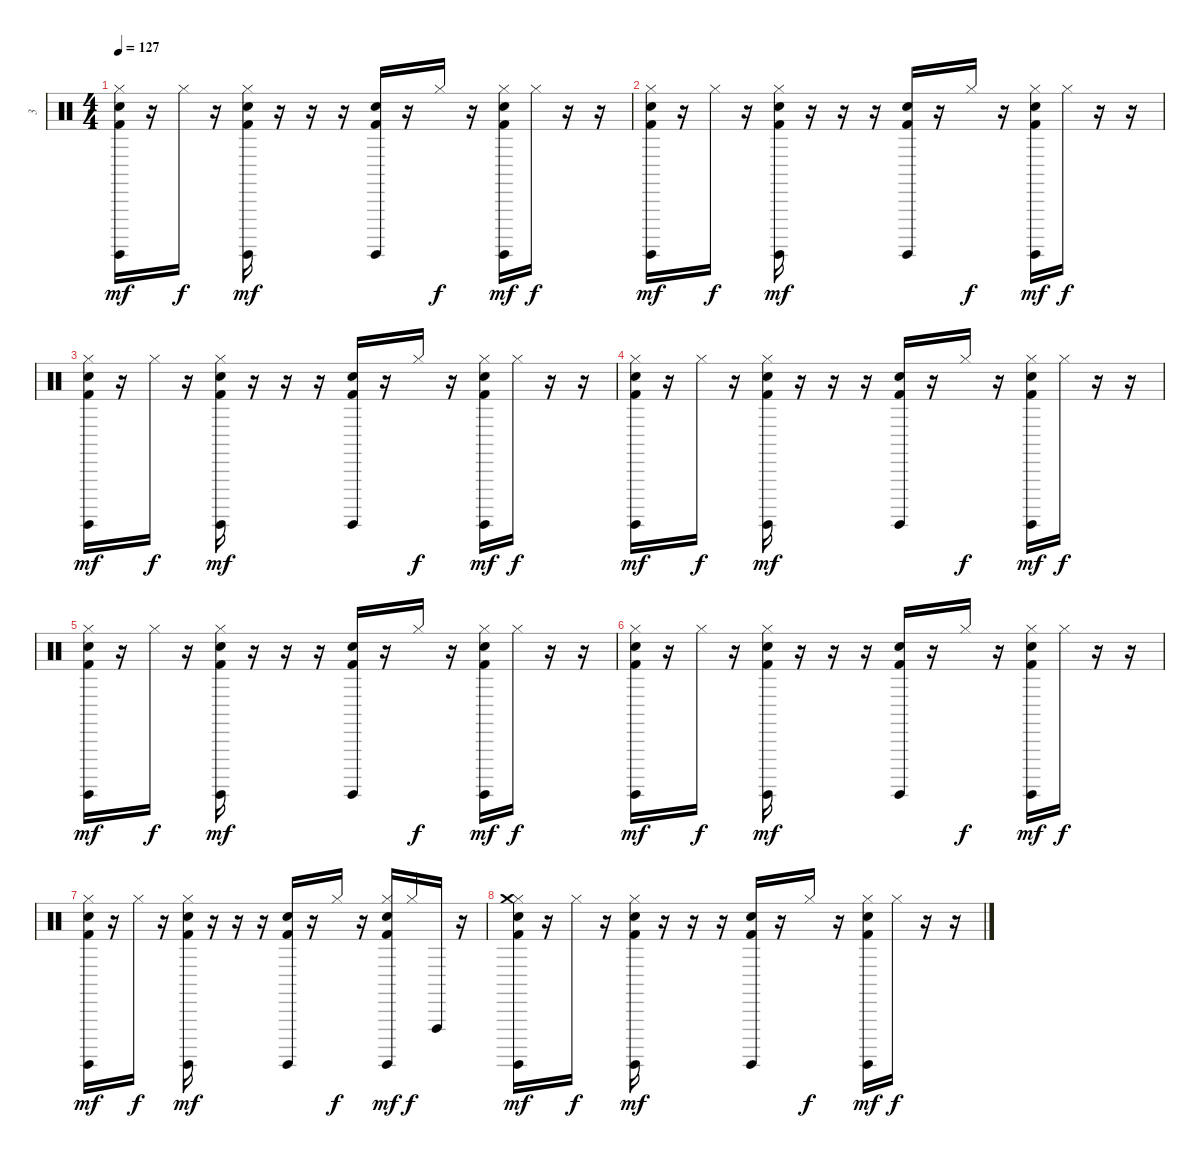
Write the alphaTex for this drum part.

\track ("3" "3") {instrument percussion}
\staff {score}
\articulation defaults
\ts (4 4)
\tempo 127
\clef neutral
\ks c
("Hi-Hat (closed)" "Surdo (hit)" "Kick (hit) 2" "Hand Clap (hit)").16{dy mf} r.16 "Hi-Hat (closed)".16{dy f} r.16 ("Hi-Hat (closed)" "Surdo (hit)" "Kick (hit) 2" "Hand Clap (hit)").16{dy mf} r.16 r.16 r.16 ("Surdo (hit)" "Kick (hit) 2" "Hand Clap (hit)").16 r.16 "Hi-Hat (closed)".16{dy f} r.16 ("Hi-Hat (closed)" "Surdo (hit)" "Kick (hit) 2" "Hand Clap (hit)").16{dy mf} "Hi-Hat (closed)".16{dy f} r.16 r.16 |
("Hi-Hat (closed)" "Surdo (hit)" "Kick (hit) 2" "Hand Clap (hit)").16{dy mf} r.16 "Hi-Hat (closed)".16{dy f} r.16 ("Hi-Hat (closed)" "Surdo (hit)" "Kick (hit) 2" "Hand Clap (hit)").16{dy mf} r.16 r.16 r.16 ("Surdo (hit)" "Kick (hit) 2" "Hand Clap (hit)").16 r.16 "Hi-Hat (closed)".16{dy f} r.16 ("Hi-Hat (closed)" "Surdo (hit)" "Kick (hit) 2" "Hand Clap (hit)").16{dy mf} "Hi-Hat (closed)".16{dy f} r.16 r.16 |
("Hi-Hat (closed)" "Surdo (hit)" "Kick (hit) 2" "Hand Clap (hit)").16{dy mf} r.16 "Hi-Hat (closed)".16{dy f} r.16 ("Hi-Hat (closed)" "Surdo (hit)" "Kick (hit) 2" "Hand Clap (hit)").16{dy mf} r.16 r.16 r.16 ("Surdo (hit)" "Kick (hit) 2" "Hand Clap (hit)").16 r.16 "Hi-Hat (closed)".16{dy f} r.16 ("Hi-Hat (closed)" "Surdo (hit)" "Kick (hit) 2" "Hand Clap (hit)").16{dy mf} "Hi-Hat (closed)".16{dy f} r.16 r.16 |
("Hi-Hat (closed)" "Surdo (hit)" "Kick (hit) 2" "Hand Clap (hit)").16{dy mf} r.16 "Hi-Hat (closed)".16{dy f} r.16 ("Hi-Hat (closed)" "Surdo (hit)" "Kick (hit) 2" "Hand Clap (hit)").16{dy mf} r.16 r.16 r.16 ("Surdo (hit)" "Kick (hit) 2" "Hand Clap (hit)").16 r.16 "Hi-Hat (closed)".16{dy f} r.16 ("Hi-Hat (closed)" "Surdo (hit)" "Kick (hit) 2" "Hand Clap (hit)").16{dy mf} "Hi-Hat (closed)".16{dy f} r.16 r.16 |
("Hi-Hat (closed)" "Surdo (hit)" "Kick (hit) 2" "Hand Clap (hit)").16{dy mf} r.16 "Hi-Hat (closed)".16{dy f} r.16 ("Hi-Hat (closed)" "Surdo (hit)" "Kick (hit) 2" "Hand Clap (hit)").16{dy mf} r.16 r.16 r.16 ("Surdo (hit)" "Kick (hit) 2" "Hand Clap (hit)").16 r.16 "Hi-Hat (closed)".16{dy f} r.16 ("Hi-Hat (closed)" "Surdo (hit)" "Kick (hit) 2" "Hand Clap (hit)").16{dy mf} "Hi-Hat (closed)".16{dy f} r.16 r.16 |
("Hi-Hat (closed)" "Surdo (hit)" "Kick (hit) 2" "Hand Clap (hit)").16{dy mf} r.16 "Hi-Hat (closed)".16{dy f} r.16 ("Hi-Hat (closed)" "Surdo (hit)" "Kick (hit) 2" "Hand Clap (hit)").16{dy mf} r.16 r.16 r.16 ("Surdo (hit)" "Kick (hit) 2" "Hand Clap (hit)").16 r.16 "Hi-Hat (closed)".16{dy f} r.16 ("Hi-Hat (closed)" "Surdo (hit)" "Kick (hit) 2" "Hand Clap (hit)").16{dy mf} "Hi-Hat (closed)".16{dy f} r.16 r.16 |
("Hi-Hat (closed)" "Surdo (hit)" "Kick (hit) 2" "Hand Clap (hit)").16{dy mf} r.16 "Hi-Hat (closed)".16{dy f} r.16 ("Hi-Hat (closed)" "Surdo (hit)" "Kick (hit) 2" "Hand Clap (hit)").16{dy mf} r.16 r.16 r.16 ("Surdo (hit)" "Kick (hit) 2" "Hand Clap (hit)").16 r.16 "Hi-Hat (closed)".16{dy f} r.16 ("Hi-Hat (closed)" "Surdo (hit)" "Kick (hit) 2" "Hand Clap (hit)").16{dy mf} "Hi-Hat (closed)".16{dy f} "Vibraslap (hit)".16 r.16 |
("Hi-Hat (closed)" "Crash medium (hit)" "Surdo (hit)" "Kick (hit) 2" "Hand Clap (hit)").16{dy mf} r.16 "Hi-Hat (closed)".16{dy f} r.16 ("Hi-Hat (closed)" "Surdo (hit)" "Kick (hit) 2" "Hand Clap (hit)").16{dy mf} r.16 r.16 r.16 ("Surdo (hit)" "Kick (hit) 2" "Hand Clap (hit)").16 r.16 "Hi-Hat (closed)".16{dy f} r.16 ("Hi-Hat (closed)" "Surdo (hit)" "Kick (hit) 2" "Hand Clap (hit)").16{dy mf} "Hi-Hat (closed)".16{dy f} r.16 r.16
